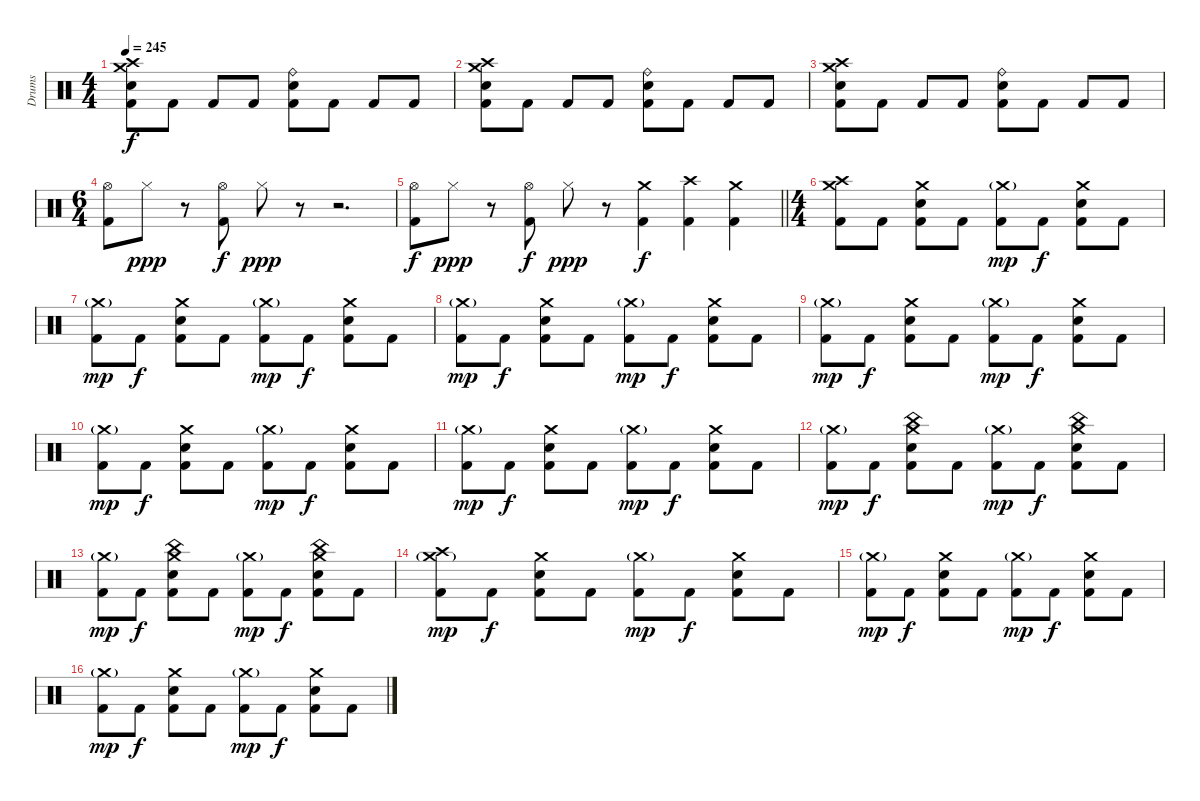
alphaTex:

\track ("Drums" "Drums") {instrument percussion}
\staff {score}
\articulation defaults
\ts (4 4)
\tempo 245
\clef neutral
\ks c
("Crash high (hit)" "Crash medium (hit)" "Electric Snare (hit)" "Kick (hit) 2").8{dy f} "Kick (hit) 2".8 "Kick (hit) 2".8 "Kick (hit) 2".8 ("Ride (bell)" "Electric Snare (hit)" "Kick (hit) 2").8 "Kick (hit) 2".8 "Kick (hit) 2".8 "Kick (hit) 2".8 |
("Crash high (hit)" "Crash medium (hit)" "Electric Snare (hit)" "Kick (hit) 2").8 "Kick (hit) 2".8 "Kick (hit) 2".8 "Kick (hit) 2".8 ("Ride (bell)" "Electric Snare (hit)" "Kick (hit) 2").8 "Kick (hit) 2".8 "Kick (hit) 2".8 "Kick (hit) 2".8 |
("Crash high (hit)" "Crash medium (hit)" "Electric Snare (hit)" "Kick (hit) 2").8 "Kick (hit) 2".8 "Kick (hit) 2".8 "Kick (hit) 2".8 ("Ride (bell)" "Electric Snare (hit)" "Kick (hit) 2").8 "Kick (hit) 2".8 "Kick (hit) 2".8 "Kick (hit) 2".8 |
\ts (6 4)
("Hi-Hat (open)" "Kick (hit) 2").8 "Hi-Hat (closed)".8{dy ppp} r.8 ("Hi-Hat (open)" "Kick (hit) 2").8{dy f} "Hi-Hat (closed)".8{dy ppp} r.8 r.2{d} |
\barLineRight lightlight
("Hi-Hat (open)" "Kick (hit) 2").8{dy f} "Hi-Hat (closed)".8{dy ppp} r.8 ("Hi-Hat (open)" "Kick (hit) 2").8{dy f} "Hi-Hat (closed)".8{dy ppp} r.8 ("Crash medium (hit)" "Kick (hit) 2").4{dy f} ("Crash high (hit)" "Kick (hit) 2").4 ("Crash medium (hit)" "Kick (hit) 2").4 |
\ts (4 4)
("Crash medium (hit)" "Crash high (hit)" "Kick (hit) 2").8 "Kick (hit) 2".8 ("Crash medium (hit)" "Electric Snare (hit)" "Kick (hit) 2").8 "Kick (hit) 2".8 ("Crash medium (hit)"{g} "Kick (hit) 2").8{dy mp} "Kick (hit) 2".8{dy f} ("Crash medium (hit)" "Electric Snare (hit)" "Kick (hit) 2").8 "Kick (hit) 2".8 |
("Crash medium (hit)"{g} "Kick (hit) 2").8{dy mp} "Kick (hit) 2".8{dy f} ("Crash medium (hit)" "Electric Snare (hit)" "Kick (hit) 2").8 "Kick (hit) 2".8 ("Crash medium (hit)"{g} "Kick (hit) 2").8{dy mp} "Kick (hit) 2".8{dy f} ("Crash medium (hit)" "Electric Snare (hit)" "Kick (hit) 2").8 "Kick (hit) 2".8 |
("Crash medium (hit)"{g} "Kick (hit) 2").8{dy mp} "Kick (hit) 2".8{dy f} ("Crash medium (hit)" "Electric Snare (hit)" "Kick (hit) 2").8 "Kick (hit) 2".8 ("Crash medium (hit)"{g} "Kick (hit) 2").8{dy mp} "Kick (hit) 2".8{dy f} ("Crash medium (hit)" "Electric Snare (hit)" "Kick (hit) 2").8 "Kick (hit) 2".8 |
("Crash medium (hit)"{g} "Kick (hit) 2").8{dy mp} "Kick (hit) 2".8{dy f} ("Crash medium (hit)" "Electric Snare (hit)" "Kick (hit) 2").8 "Kick (hit) 2".8 ("Crash medium (hit)"{g} "Kick (hit) 2").8{dy mp} "Kick (hit) 2".8{dy f} ("Crash medium (hit)" "Electric Snare (hit)" "Kick (hit) 2").8 "Kick (hit) 2".8 |
("Crash medium (hit)"{g} "Kick (hit) 2").8{dy mp} "Kick (hit) 2".8{dy f} ("Crash medium (hit)" "Electric Snare (hit)" "Kick (hit) 2").8 "Kick (hit) 2".8 ("Crash medium (hit)"{g} "Kick (hit) 2").8{dy mp} "Kick (hit) 2".8{dy f} ("Crash medium (hit)" "Electric Snare (hit)" "Kick (hit) 2").8 "Kick (hit) 2".8 |
("Crash medium (hit)"{g} "Kick (hit) 2").8{dy mp} "Kick (hit) 2".8{dy f} ("Crash medium (hit)" "Electric Snare (hit)" "Kick (hit) 2").8 "Kick (hit) 2".8 ("Crash medium (hit)"{g} "Kick (hit) 2").8{dy mp} "Kick (hit) 2".8{dy f} ("Crash medium (hit)" "Electric Snare (hit)" "Kick (hit) 2").8 "Kick (hit) 2".8 |
("Crash medium (hit)"{g} "Kick (hit) 2").8{dy mp} "Kick (hit) 2".8{dy f} ("Crash medium (hit)" "China (hit)" "Electric Snare (hit)" "Kick (hit) 2").8 "Kick (hit) 2".8 ("Crash medium (hit)"{g} "Kick (hit) 2").8{dy mp} "Kick (hit) 2".8{dy f} ("Crash medium (hit)" "China (hit)" "Electric Snare (hit)" "Kick (hit) 2").8 "Kick (hit) 2".8 |
("Crash medium (hit)"{g} "Kick (hit) 2").8{dy mp} "Kick (hit) 2".8{dy f} ("Crash medium (hit)" "China (hit)" "Electric Snare (hit)" "Kick (hit) 2").8 "Kick (hit) 2".8 ("Crash medium (hit)"{g} "Kick (hit) 2").8{dy mp} "Kick (hit) 2".8{dy f} ("Crash medium (hit)" "China (hit)" "Electric Snare (hit)" "Kick (hit) 2").8 "Kick (hit) 2".8 |
("Crash medium (hit)"{g} "Crash high (hit)" "Kick (hit) 2").8{dy mp} "Kick (hit) 2".8{dy f} ("Crash medium (hit)" "Electric Snare (hit)" "Kick (hit) 2").8 "Kick (hit) 2".8 ("Crash medium (hit)"{g} "Kick (hit) 2").8{dy mp} "Kick (hit) 2".8{dy f} ("Crash medium (hit)" "Electric Snare (hit)" "Kick (hit) 2").8 "Kick (hit) 2".8 |
("Crash medium (hit)"{g} "Kick (hit) 2").8{dy mp} "Kick (hit) 2".8{dy f} ("Crash medium (hit)" "Electric Snare (hit)" "Kick (hit) 2").8 "Kick (hit) 2".8 ("Crash medium (hit)"{g} "Kick (hit) 2").8{dy mp} "Kick (hit) 2".8{dy f} ("Crash medium (hit)" "Electric Snare (hit)" "Kick (hit) 2").8 "Kick (hit) 2".8 |
("Crash medium (hit)"{g} "Kick (hit) 2").8{dy mp} "Kick (hit) 2".8{dy f} ("Crash medium (hit)" "Electric Snare (hit)" "Kick (hit) 2").8 "Kick (hit) 2".8 ("Crash medium (hit)"{g} "Kick (hit) 2").8{dy mp} "Kick (hit) 2".8{dy f} ("Crash medium (hit)" "Electric Snare (hit)" "Kick (hit) 2").8 "Kick (hit) 2".8
